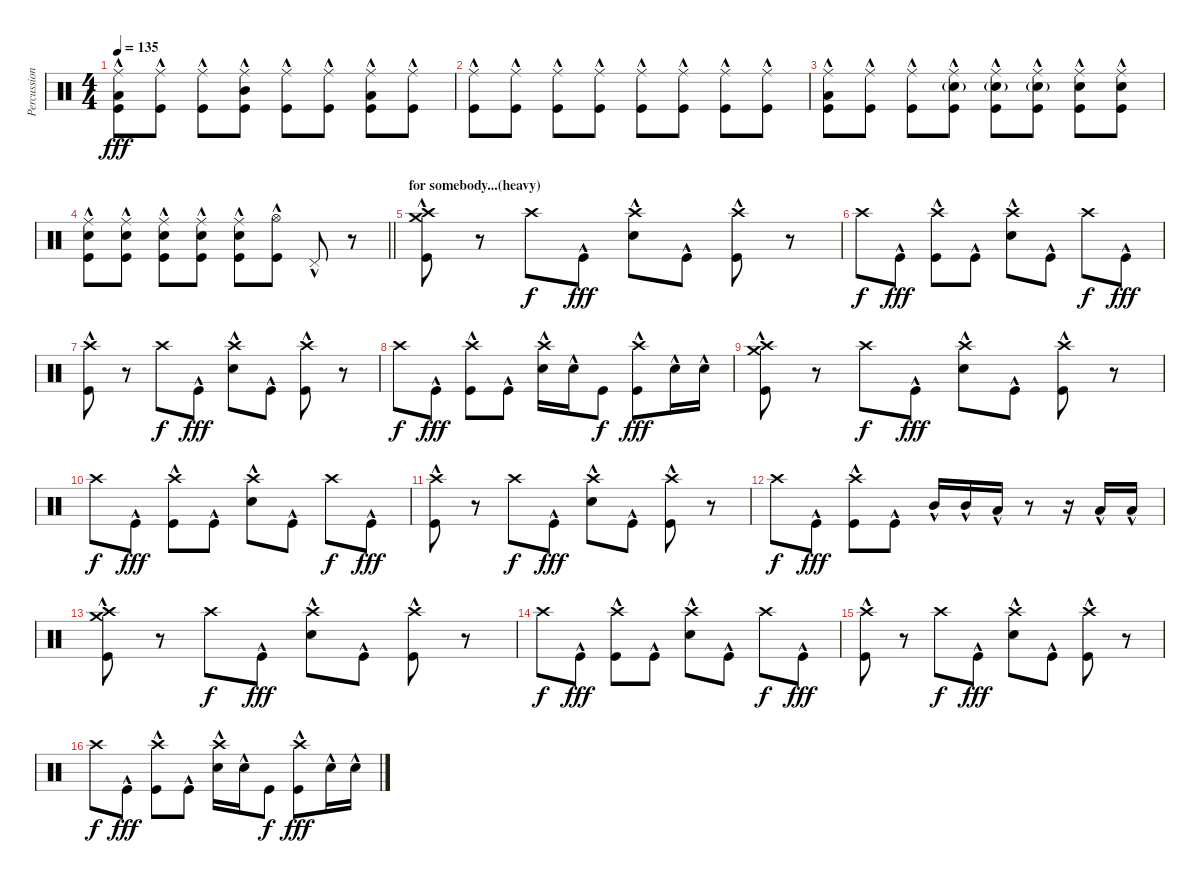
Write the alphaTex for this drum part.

\track ("Percussion" "Percussion") {instrument percussion}
\staff {score}
\articulation defaults
\ts (4 4)
\tempo 135
\clef neutral
\ks c
("Ride (middle)" "Low Floor Tom (hit)"{hac} "Kick (hit)"{hac}).8{dy fff} ("Ride (middle)" "Kick (hit)"{hac}).8 ("Ride (middle)" "Kick (hit)"{hac}).8 ("Ride (middle)" "Mid Tom (hit)"{hac} "Kick (hit)"{hac}).8 ("Ride (middle)" "Kick (hit)"{hac}).8 ("Ride (middle)" "Kick (hit)"{hac}).8 ("Ride (middle)" "Low Tom (hit)"{hac} "Kick (hit)"{hac}).8 ("Ride (middle)" "Kick (hit)"{hac}).8 |
("Ride (middle)" "Kick (hit)"{hac}).8 ("Ride (middle)" "Kick (hit)"{hac}).8 ("Ride (middle)" "Kick (hit)"{hac}).8 ("Ride (middle)" "Kick (hit)"{hac}).8 ("Ride (middle)" "Kick (hit)"{hac}).8 ("Ride (middle)" "Kick (hit)"{hac}).8 ("Ride (middle)" "Kick (hit)"{hac}).8 ("Ride (middle)" "Kick (hit)"{hac}).8 |
("Ride (middle)" "Low Floor Tom (hit)"{hac} "Kick (hit)"{hac}).8 ("Ride (middle)" "Kick (hit)"{hac}).8 ("Ride (middle)" "Kick (hit)"{hac}).8 ("Ride (middle)" "Snare (hit) 2"{g} "Kick (hit)"{hac}).8 ("Ride (middle)" "Snare (hit) 2"{g} "Kick (hit)"{hac}).8 ("Ride (middle)" "Snare (hit) 2"{g} "Kick (hit)"{hac}).8 ("Ride (middle)" "Snare (hit) 2" "Kick (hit)"{hac}).8 ("Ride (middle)" "Snare (hit) 2" "Kick (hit)"{hac}).8 |
\barLineRight lightlight
("Ride (middle)" "Snare (hit) 2" "Kick (hit)"{hac}).8 ("Ride (middle)" "Snare (hit) 2"{hac} "Kick (hit)"{hac}).8 ("Ride (middle)" "Snare (hit) 2"{hac} "Kick (hit)"{hac}).8 ("Ride (middle)" "Snare (hit) 2"{hac} "Kick (hit)"{hac}).8 ("Ride (middle)" "Snare (hit) 2"{hac} "Kick (hit)"{hac}).8 ("Hi-Hat (open)"{hac} "Kick (hit)"{hac}).8 "Pedal Hi-Hat (hit)"{hac}.8 r.8 |
\section ("" "for somebody...(heavy)")
("Crash medium (hit)" "Crash high (hit)" "Kick (hit)"{hac}).8 r.8 "Crash high (hit)".8{dy f} "Kick (hit)"{hac}.8{dy fff} ("Crash high (hit)" "Snare (hit) 2"{hac}).8 "Kick (hit)"{hac}.8 ("Crash high (hit)" "Kick (hit)"{hac}).8 r.8 |
"Crash high (hit)".8{dy f} "Kick (hit)"{hac}.8{dy fff} ("Crash high (hit)" "Kick (hit)"{hac}).8 "Kick (hit)"{hac}.8 ("Crash high (hit)" "Snare (hit) 2"{hac}).8 "Kick (hit)"{hac}.8 "Crash high (hit)".8{dy f} "Kick (hit)"{hac}.8{dy fff} |
("Crash high (hit)" "Kick (hit)"{hac}).8 r.8 "Crash high (hit)".8{dy f} "Kick (hit)"{hac}.8{dy fff} ("Crash high (hit)" "Snare (hit) 2"{hac}).8 "Kick (hit)"{hac}.8 ("Crash high (hit)" "Kick (hit)"{hac}).8 r.8 |
"Crash high (hit)".8{dy f} "Kick (hit)"{hac}.8{dy fff} ("Crash high (hit)" "Kick (hit)"{hac}).8 "Kick (hit)"{hac}.8 ("Crash high (hit)" "Snare (hit) 2"{hac}).16 "Snare (hit) 2"{hac}.16 "Kick (hit)".8{dy f} ("Crash high (hit)" "Kick (hit)"{hac}).8{dy fff} "Snare (hit) 2"{hac}.16 "Snare (hit) 2"{hac}.16 |
("Crash medium (hit)" "Crash high (hit)" "Kick (hit)"{hac}).8 r.8 "Crash high (hit)".8{dy f} "Kick (hit)"{hac}.8{dy fff} ("Crash high (hit)" "Snare (hit) 2"{hac}).8 "Kick (hit)"{hac}.8 ("Crash high (hit)" "Kick (hit)"{hac}).8 r.8 |
"Crash high (hit)".8{dy f} "Kick (hit)"{hac}.8{dy fff} ("Crash high (hit)" "Kick (hit)"{hac}).8 "Kick (hit)"{hac}.8 ("Crash high (hit)" "Snare (hit) 2"{hac}).8 "Kick (hit)"{hac}.8 "Crash high (hit)".8{dy f} "Kick (hit)"{hac}.8{dy fff} |
("Crash high (hit)" "Kick (hit)"{hac}).8 r.8 "Crash high (hit)".8{dy f} "Kick (hit)"{hac}.8{dy fff} ("Crash high (hit)" "Snare (hit) 2"{hac}).8 "Kick (hit)"{hac}.8 ("Crash high (hit)" "Kick (hit)"{hac}).8 r.8 |
"Crash high (hit)".8{dy f} "Kick (hit)"{hac}.8{dy fff} ("Crash high (hit)" "Kick (hit)"{hac}).8 "Kick (hit)"{hac}.8 "Mid Tom (hit)"{hac}.16 "Mid Tom (hit)"{hac}.16 "Low Tom (hit)"{hac}.16 r.8 r.16 "Low Tom (hit)"{hac}.16 "Low Tom (hit)"{hac}.16 |
("Crash medium (hit)" "Crash high (hit)" "Kick (hit)"{hac}).8 r.8 "Crash high (hit)".8{dy f} "Kick (hit)"{hac}.8{dy fff} ("Crash high (hit)" "Snare (hit) 2"{hac}).8 "Kick (hit)"{hac}.8 ("Crash high (hit)" "Kick (hit)"{hac}).8 r.8 |
"Crash high (hit)".8{dy f} "Kick (hit)"{hac}.8{dy fff} ("Crash high (hit)" "Kick (hit)"{hac}).8 "Kick (hit)"{hac}.8 ("Crash high (hit)" "Snare (hit) 2"{hac}).8 "Kick (hit)"{hac}.8 "Crash high (hit)".8{dy f} "Kick (hit)"{hac}.8{dy fff} |
("Crash high (hit)" "Kick (hit)"{hac}).8 r.8 "Crash high (hit)".8{dy f} "Kick (hit)"{hac}.8{dy fff} ("Crash high (hit)" "Snare (hit) 2"{hac}).8 "Kick (hit)"{hac}.8 ("Crash high (hit)" "Kick (hit)"{hac}).8 r.8 |
"Crash high (hit)".8{dy f} "Kick (hit)"{hac}.8{dy fff} ("Crash high (hit)" "Kick (hit)"{hac}).8 "Kick (hit)"{hac}.8 ("Crash high (hit)" "Snare (hit) 2"{hac}).16 "Snare (hit) 2"{hac}.16 "Kick (hit)".8{dy f} ("Crash high (hit)" "Kick (hit)"{hac}).8{dy fff} "Snare (hit) 2"{hac}.16 "Snare (hit) 2"{hac}.16
